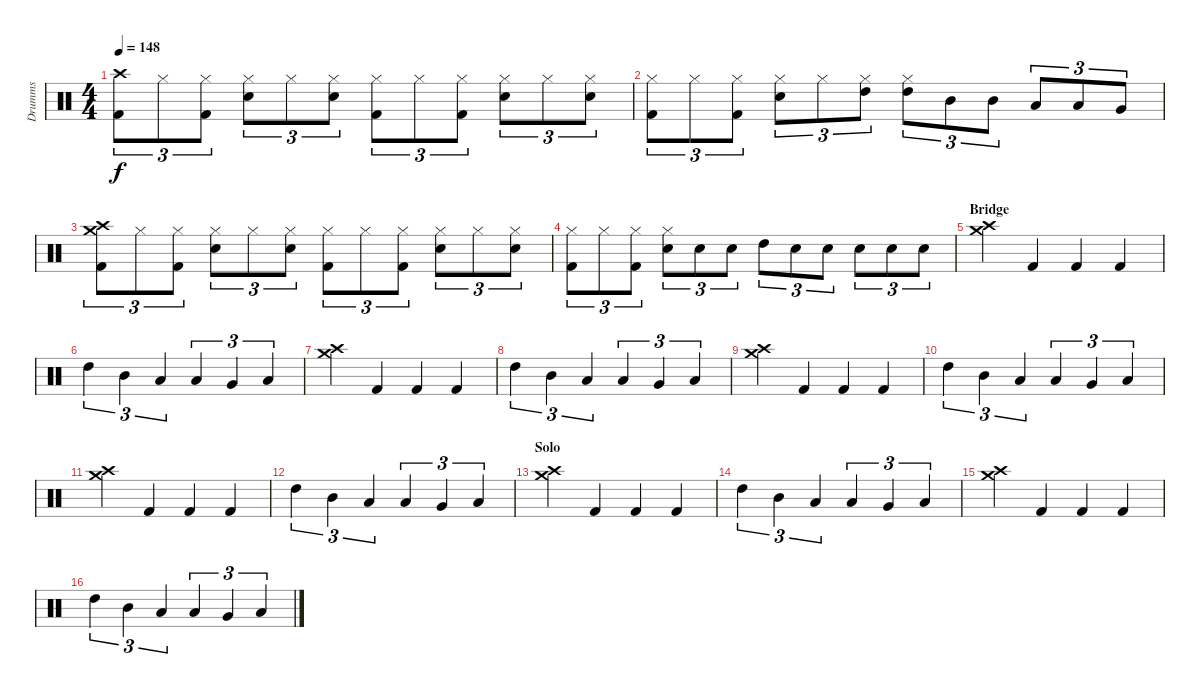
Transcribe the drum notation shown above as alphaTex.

\track ("Drumms" "Drumms") {instrument percussion}
\staff {score}
\articulation defaults
\ts (4 4)
\tempo 148
\clef neutral
\ks c
("Crash high (hit)" "Kick (hit) 2").8{tu (3 2) dy f} "Hi-Hat (closed)".8{tu (3 2)} ("Hi-Hat (closed)" "Kick (hit) 2").8{tu (3 2)} ("Hi-Hat (closed)" "Snare (hit) 2").8{tu (3 2)} "Hi-Hat (closed)".8{tu (3 2)} ("Hi-Hat (closed)" "Snare (hit) 2").8{tu (3 2)} ("Hi-Hat (closed)" "Kick (hit) 2").8{tu (3 2)} "Hi-Hat (closed)".8{tu (3 2)} ("Hi-Hat (closed)" "Kick (hit) 2").8{tu (3 2)} ("Hi-Hat (closed)" "Snare (hit) 2").8{tu (3 2)} "Hi-Hat (closed)".8{tu (3 2)} ("Hi-Hat (closed)" "Snare (hit) 2").8{tu (3 2)} |
("Hi-Hat (closed)" "Kick (hit) 2").8{tu (3 2)} "Hi-Hat (closed)".8{tu (3 2)} ("Hi-Hat (closed)" "Kick (hit) 2").8{tu (3 2)} ("Hi-Hat (closed)" "Snare (hit) 2").8{tu (3 2)} "Hi-Hat (closed)".8{tu (3 2)} ("Hi-Hat (closed)" "High Tom (hit)").8{tu (3 2)} ("Hi-Hat (closed)" "High Tom (hit)").8{tu (3 2)} "Mid Tom (hit)".8{tu (3 2)} "Mid Tom (hit)".8{tu (3 2)} "Low Tom (hit)".8{tu (3 2)} "Low Tom (hit)".8{tu (3 2)} "Very Low Tom (hit)".8{tu (3 2)} |
("Crash high (hit)" "Crash medium (hit)" "Kick (hit) 2").8{tu (3 2)} "Hi-Hat (closed)".8{tu (3 2)} ("Hi-Hat (closed)" "Kick (hit) 2").8{tu (3 2)} ("Hi-Hat (closed)" "Snare (hit) 2").8{tu (3 2)} "Hi-Hat (closed)".8{tu (3 2)} ("Hi-Hat (closed)" "Snare (hit) 2").8{tu (3 2)} ("Hi-Hat (closed)" "Kick (hit) 2").8{tu (3 2)} "Hi-Hat (closed)".8{tu (3 2)} ("Hi-Hat (closed)" "Kick (hit) 2").8{tu (3 2)} ("Hi-Hat (closed)" "Snare (hit) 2").8{tu (3 2)} "Hi-Hat (closed)".8{tu (3 2)} ("Hi-Hat (closed)" "Snare (hit) 2").8{tu (3 2)} |
("Hi-Hat (closed)" "Kick (hit) 2").8{tu (3 2)} "Hi-Hat (closed)".8{tu (3 2)} ("Hi-Hat (closed)" "Kick (hit) 2").8{tu (3 2)} ("Hi-Hat (closed)" "Snare (hit) 2").8{tu (3 2)} "Snare (hit) 2".8{tu (3 2)} "Snare (hit) 2".8{tu (3 2)} "High Tom (hit)".8{tu (3 2)} "Snare (hit) 2".8{tu (3 2)} "Snare (hit) 2".8{tu (3 2)} "Snare (hit) 2".8{tu (3 2)} "Snare (hit) 2".8{tu (3 2)} "Snare (hit) 2".8{tu (3 2)} |
\section ("" "Bridge")
("Crash medium (hit)" "Crash high (hit)").4 "Kick (hit) 2".4 "Kick (hit) 2".4 "Kick (hit) 2".4 |
"High Tom (hit)".4{tu (3 2)} "Mid Tom (hit)".4{tu (3 2)} "Low Tom (hit)".4{tu (3 2)} "Low Tom (hit)".4{tu (3 2)} "Very Low Tom (hit)".4{tu (3 2)} "Low Floor Tom (hit)".4{tu (3 2)} |
("Crash medium (hit)" "Crash high (hit)").4 "Kick (hit) 2".4 "Kick (hit) 2".4 "Kick (hit) 2".4 |
"High Tom (hit)".4{tu (3 2)} "Mid Tom (hit)".4{tu (3 2)} "Low Tom (hit)".4{tu (3 2)} "Low Tom (hit)".4{tu (3 2)} "Very Low Tom (hit)".4{tu (3 2)} "Low Floor Tom (hit)".4{tu (3 2)} |
("Crash medium (hit)" "Crash high (hit)").4 "Kick (hit) 2".4 "Kick (hit) 2".4 "Kick (hit) 2".4 |
"High Tom (hit)".4{tu (3 2)} "Mid Tom (hit)".4{tu (3 2)} "Low Tom (hit)".4{tu (3 2)} "Low Tom (hit)".4{tu (3 2)} "Very Low Tom (hit)".4{tu (3 2)} "Low Floor Tom (hit)".4{tu (3 2)} |
("Crash medium (hit)" "Crash high (hit)").4 "Kick (hit) 2".4 "Kick (hit) 2".4 "Kick (hit) 2".4 |
"High Tom (hit)".4{tu (3 2)} "Mid Tom (hit)".4{tu (3 2)} "Low Tom (hit)".4{tu (3 2)} "Low Tom (hit)".4{tu (3 2)} "Very Low Tom (hit)".4{tu (3 2)} "Low Floor Tom (hit)".4{tu (3 2)} |
\section ("" "Solo")
("Crash medium (hit)" "Crash high (hit)").4 "Kick (hit) 2".4 "Kick (hit) 2".4 "Kick (hit) 2".4 |
"High Tom (hit)".4{tu (3 2)} "Mid Tom (hit)".4{tu (3 2)} "Low Tom (hit)".4{tu (3 2)} "Low Tom (hit)".4{tu (3 2)} "Very Low Tom (hit)".4{tu (3 2)} "Low Floor Tom (hit)".4{tu (3 2)} |
("Crash medium (hit)" "Crash high (hit)").4 "Kick (hit) 2".4 "Kick (hit) 2".4 "Kick (hit) 2".4 |
"High Tom (hit)".4{tu (3 2)} "Mid Tom (hit)".4{tu (3 2)} "Low Tom (hit)".4{tu (3 2)} "Low Tom (hit)".4{tu (3 2)} "Very Low Tom (hit)".4{tu (3 2)} "Low Floor Tom (hit)".4{tu (3 2)}
